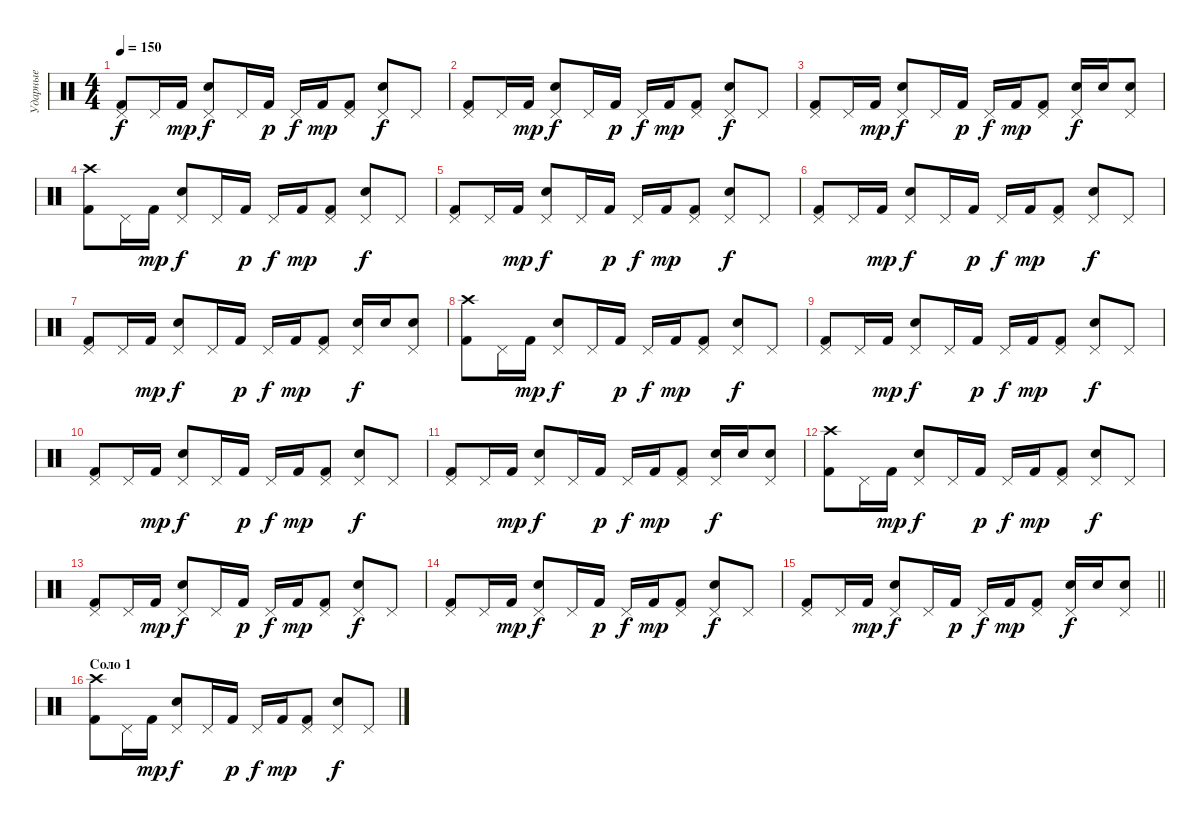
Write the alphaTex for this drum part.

\track ("Ударные" "Ударные") {instrument percussion}
\staff {score}
\articulation defaults
\ts (4 4)
\tempo 150
\clef neutral
\ks c
("Pedal Hi-Hat (hit)" "Kick (hit) 2").8{dy f} "Pedal Hi-Hat (hit)".16 "Kick (hit) 2".16{dy mp} ("Pedal Hi-Hat (hit)" "Snare (hit) 2").8{dy f} "Pedal Hi-Hat (hit)".16 "Kick (hit) 2".16{dy p} "Pedal Hi-Hat (hit)".16{dy f} "Kick (hit) 2".16{dy mp} ("Pedal Hi-Hat (hit)" "Kick (hit) 2").8 ("Pedal Hi-Hat (hit)" "Snare (hit) 2").8{dy f} "Pedal Hi-Hat (hit)".8 |
("Pedal Hi-Hat (hit)" "Kick (hit) 2").8 "Pedal Hi-Hat (hit)".16 "Kick (hit) 2".16{dy mp} ("Pedal Hi-Hat (hit)" "Snare (hit) 2").8{dy f} "Pedal Hi-Hat (hit)".16 "Kick (hit) 2".16{dy p} "Pedal Hi-Hat (hit)".16{dy f} "Kick (hit) 2".16{dy mp} ("Pedal Hi-Hat (hit)" "Kick (hit) 2").8 ("Pedal Hi-Hat (hit)" "Snare (hit) 2").8{dy f} "Pedal Hi-Hat (hit)".8 |
("Pedal Hi-Hat (hit)" "Kick (hit) 2").8 "Pedal Hi-Hat (hit)".16 "Kick (hit) 2".16{dy mp} ("Pedal Hi-Hat (hit)" "Snare (hit) 2").8{dy f} "Pedal Hi-Hat (hit)".16 "Kick (hit) 2".16{dy p} "Pedal Hi-Hat (hit)".16{dy f} "Kick (hit) 2".16{dy mp} ("Pedal Hi-Hat (hit)" "Kick (hit) 2").8 ("Pedal Hi-Hat (hit)" "Snare (hit) 2").16{dy f} "Snare (hit) 2".16 ("Pedal Hi-Hat (hit)" "Snare (hit) 2").8 |
("Crash high (hit)" "Kick (hit) 2").8 "Pedal Hi-Hat (hit)".16 "Kick (hit) 2".16{dy mp} ("Pedal Hi-Hat (hit)" "Snare (hit) 2").8{dy f} "Pedal Hi-Hat (hit)".16 "Kick (hit) 2".16{dy p} "Pedal Hi-Hat (hit)".16{dy f} "Kick (hit) 2".16{dy mp} ("Pedal Hi-Hat (hit)" "Kick (hit) 2").8 ("Pedal Hi-Hat (hit)" "Snare (hit) 2").8{dy f} "Pedal Hi-Hat (hit)".8 |
("Pedal Hi-Hat (hit)" "Kick (hit) 2").8 "Pedal Hi-Hat (hit)".16 "Kick (hit) 2".16{dy mp} ("Pedal Hi-Hat (hit)" "Snare (hit) 2").8{dy f} "Pedal Hi-Hat (hit)".16 "Kick (hit) 2".16{dy p} "Pedal Hi-Hat (hit)".16{dy f} "Kick (hit) 2".16{dy mp} ("Pedal Hi-Hat (hit)" "Kick (hit) 2").8 ("Pedal Hi-Hat (hit)" "Snare (hit) 2").8{dy f} "Pedal Hi-Hat (hit)".8 |
("Pedal Hi-Hat (hit)" "Kick (hit) 2").8 "Pedal Hi-Hat (hit)".16 "Kick (hit) 2".16{dy mp} ("Pedal Hi-Hat (hit)" "Snare (hit) 2").8{dy f} "Pedal Hi-Hat (hit)".16 "Kick (hit) 2".16{dy p} "Pedal Hi-Hat (hit)".16{dy f} "Kick (hit) 2".16{dy mp} ("Pedal Hi-Hat (hit)" "Kick (hit) 2").8 ("Pedal Hi-Hat (hit)" "Snare (hit) 2").8{dy f} "Pedal Hi-Hat (hit)".8 |
("Pedal Hi-Hat (hit)" "Kick (hit) 2").8 "Pedal Hi-Hat (hit)".16 "Kick (hit) 2".16{dy mp} ("Pedal Hi-Hat (hit)" "Snare (hit) 2").8{dy f} "Pedal Hi-Hat (hit)".16 "Kick (hit) 2".16{dy p} "Pedal Hi-Hat (hit)".16{dy f} "Kick (hit) 2".16{dy mp} ("Pedal Hi-Hat (hit)" "Kick (hit) 2").8 ("Pedal Hi-Hat (hit)" "Snare (hit) 2").16{dy f} "Snare (hit) 2".16 ("Pedal Hi-Hat (hit)" "Snare (hit) 2").8 |
("Crash high (hit)" "Kick (hit) 2").8 "Pedal Hi-Hat (hit)".16 "Kick (hit) 2".16{dy mp} ("Pedal Hi-Hat (hit)" "Snare (hit) 2").8{dy f} "Pedal Hi-Hat (hit)".16 "Kick (hit) 2".16{dy p} "Pedal Hi-Hat (hit)".16{dy f} "Kick (hit) 2".16{dy mp} ("Pedal Hi-Hat (hit)" "Kick (hit) 2").8 ("Pedal Hi-Hat (hit)" "Snare (hit) 2").8{dy f} "Pedal Hi-Hat (hit)".8 |
("Pedal Hi-Hat (hit)" "Kick (hit) 2").8 "Pedal Hi-Hat (hit)".16 "Kick (hit) 2".16{dy mp} ("Pedal Hi-Hat (hit)" "Snare (hit) 2").8{dy f} "Pedal Hi-Hat (hit)".16 "Kick (hit) 2".16{dy p} "Pedal Hi-Hat (hit)".16{dy f} "Kick (hit) 2".16{dy mp} ("Pedal Hi-Hat (hit)" "Kick (hit) 2").8 ("Pedal Hi-Hat (hit)" "Snare (hit) 2").8{dy f} "Pedal Hi-Hat (hit)".8 |
("Pedal Hi-Hat (hit)" "Kick (hit) 2").8 "Pedal Hi-Hat (hit)".16 "Kick (hit) 2".16{dy mp} ("Pedal Hi-Hat (hit)" "Snare (hit) 2").8{dy f} "Pedal Hi-Hat (hit)".16 "Kick (hit) 2".16{dy p} "Pedal Hi-Hat (hit)".16{dy f} "Kick (hit) 2".16{dy mp} ("Pedal Hi-Hat (hit)" "Kick (hit) 2").8 ("Pedal Hi-Hat (hit)" "Snare (hit) 2").8{dy f} "Pedal Hi-Hat (hit)".8 |
("Pedal Hi-Hat (hit)" "Kick (hit) 2").8 "Pedal Hi-Hat (hit)".16 "Kick (hit) 2".16{dy mp} ("Pedal Hi-Hat (hit)" "Snare (hit) 2").8{dy f} "Pedal Hi-Hat (hit)".16 "Kick (hit) 2".16{dy p} "Pedal Hi-Hat (hit)".16{dy f} "Kick (hit) 2".16{dy mp} ("Pedal Hi-Hat (hit)" "Kick (hit) 2").8 ("Pedal Hi-Hat (hit)" "Snare (hit) 2").16{dy f} "Snare (hit) 2".16 ("Pedal Hi-Hat (hit)" "Snare (hit) 2").8 |
("Crash high (hit)" "Kick (hit) 2").8 "Pedal Hi-Hat (hit)".16 "Kick (hit) 2".16{dy mp} ("Pedal Hi-Hat (hit)" "Snare (hit) 2").8{dy f} "Pedal Hi-Hat (hit)".16 "Kick (hit) 2".16{dy p} "Pedal Hi-Hat (hit)".16{dy f} "Kick (hit) 2".16{dy mp} ("Pedal Hi-Hat (hit)" "Kick (hit) 2").8 ("Pedal Hi-Hat (hit)" "Snare (hit) 2").8{dy f} "Pedal Hi-Hat (hit)".8 |
("Pedal Hi-Hat (hit)" "Kick (hit) 2").8 "Pedal Hi-Hat (hit)".16 "Kick (hit) 2".16{dy mp} ("Pedal Hi-Hat (hit)" "Snare (hit) 2").8{dy f} "Pedal Hi-Hat (hit)".16 "Kick (hit) 2".16{dy p} "Pedal Hi-Hat (hit)".16{dy f} "Kick (hit) 2".16{dy mp} ("Pedal Hi-Hat (hit)" "Kick (hit) 2").8 ("Pedal Hi-Hat (hit)" "Snare (hit) 2").8{dy f} "Pedal Hi-Hat (hit)".8 |
("Pedal Hi-Hat (hit)" "Kick (hit) 2").8 "Pedal Hi-Hat (hit)".16 "Kick (hit) 2".16{dy mp} ("Pedal Hi-Hat (hit)" "Snare (hit) 2").8{dy f} "Pedal Hi-Hat (hit)".16 "Kick (hit) 2".16{dy p} "Pedal Hi-Hat (hit)".16{dy f} "Kick (hit) 2".16{dy mp} ("Pedal Hi-Hat (hit)" "Kick (hit) 2").8 ("Pedal Hi-Hat (hit)" "Snare (hit) 2").8{dy f} "Pedal Hi-Hat (hit)".8 |
\barLineRight lightlight
("Pedal Hi-Hat (hit)" "Kick (hit) 2").8 "Pedal Hi-Hat (hit)".16 "Kick (hit) 2".16{dy mp} ("Pedal Hi-Hat (hit)" "Snare (hit) 2").8{dy f} "Pedal Hi-Hat (hit)".16 "Kick (hit) 2".16{dy p} "Pedal Hi-Hat (hit)".16{dy f} "Kick (hit) 2".16{dy mp} ("Pedal Hi-Hat (hit)" "Kick (hit) 2").8 ("Pedal Hi-Hat (hit)" "Snare (hit) 2").16{dy f} "Snare (hit) 2".16 ("Pedal Hi-Hat (hit)" "Snare (hit) 2").8 |
\section ("" "Соло 1")
("Crash high (hit)" "Kick (hit) 2").8 "Pedal Hi-Hat (hit)".16 "Kick (hit) 2".16{dy mp} ("Pedal Hi-Hat (hit)" "Snare (hit) 2").8{dy f} "Pedal Hi-Hat (hit)".16 "Kick (hit) 2".16{dy p} "Pedal Hi-Hat (hit)".16{dy f} "Kick (hit) 2".16{dy mp} ("Pedal Hi-Hat (hit)" "Kick (hit) 2").8 ("Pedal Hi-Hat (hit)" "Snare (hit) 2").8{dy f} "Pedal Hi-Hat (hit)".8
